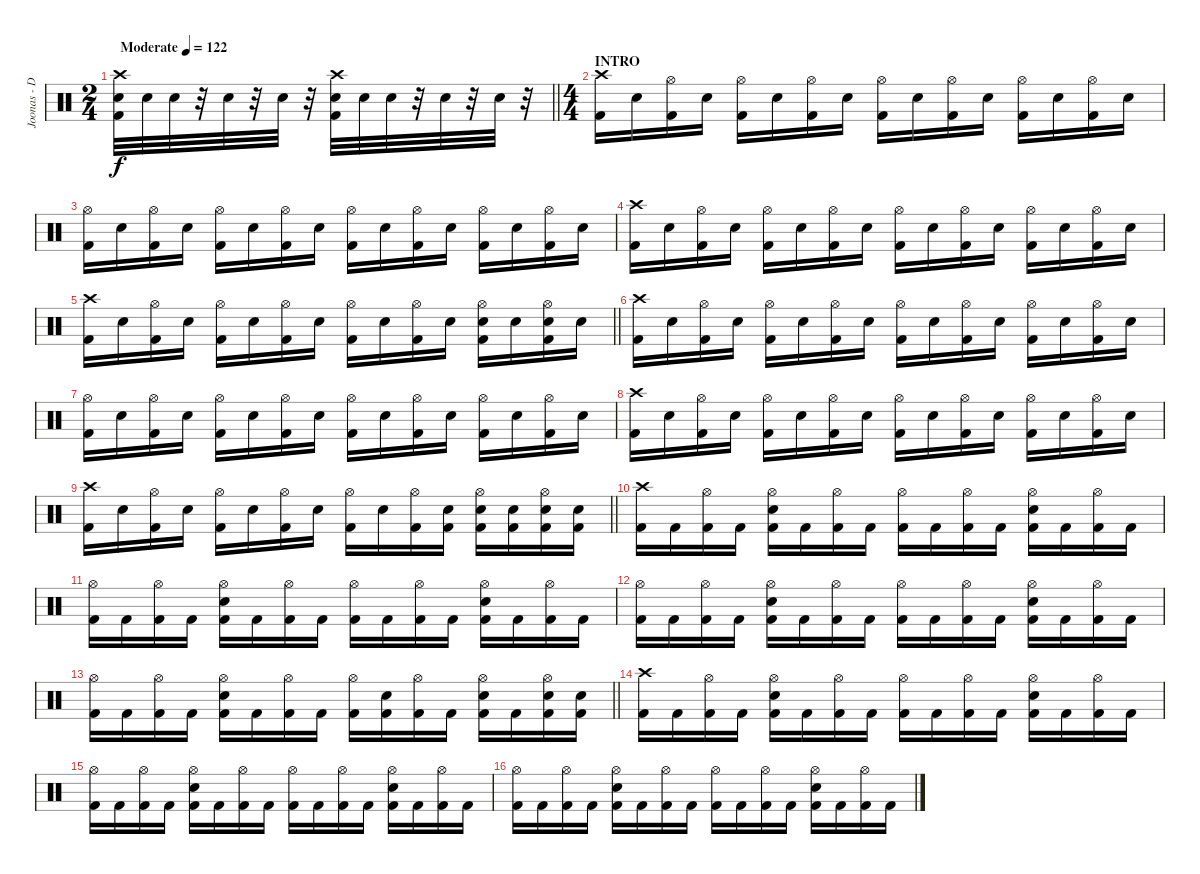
\track ("Joonas - Drums" "Joonas - D") {instrument percussion}
\staff {score}
\articulation defaults
\ts (2 4)
\tempo (122 "Moderate")
\clef neutral
\barLineRight lightlight
\ks c
("Crash high (hit)" "Electric Snare (hit)" "Kick (hit) 2").32{dy f} "Electric Snare (hit)".32 "Electric Snare (hit)".32 r.32 "Electric Snare (hit)".32 r.32 "Electric Snare (hit)".32 r.32 ("Crash high (hit)" "Electric Snare (hit)" "Kick (hit) 2").32 "Electric Snare (hit)".32 "Electric Snare (hit)".32 r.32 "Electric Snare (hit)".32 r.32 "Electric Snare (hit)".32 r.32 |
\ts (4 4)
\section ("" "INTRO")
("Crash high (hit)" "Kick (hit) 2").16 "Electric Snare (hit)".16 ("Hi-Hat (open)" "Kick (hit) 2").16 "Electric Snare (hit)".16 ("Hi-Hat (open)" "Kick (hit) 2").16 "Electric Snare (hit)".16 ("Hi-Hat (open)" "Kick (hit) 2").16 "Electric Snare (hit)".16 ("Hi-Hat (open)" "Kick (hit) 2").16 "Electric Snare (hit)".16 ("Hi-Hat (open)" "Kick (hit) 2").16 "Electric Snare (hit)".16 ("Hi-Hat (open)" "Kick (hit) 2").16 "Electric Snare (hit)".16 ("Hi-Hat (open)" "Kick (hit) 2").16 "Electric Snare (hit)".16 |
("Hi-Hat (open)" "Kick (hit) 2").16 "Electric Snare (hit)".16 ("Hi-Hat (open)" "Kick (hit) 2").16 "Electric Snare (hit)".16 ("Hi-Hat (open)" "Kick (hit) 2").16 "Electric Snare (hit)".16 ("Hi-Hat (open)" "Kick (hit) 2").16 "Electric Snare (hit)".16 ("Hi-Hat (open)" "Kick (hit) 2").16 "Electric Snare (hit)".16 ("Hi-Hat (open)" "Kick (hit) 2").16 "Electric Snare (hit)".16 ("Hi-Hat (open)" "Kick (hit) 2").16 "Electric Snare (hit)".16 ("Hi-Hat (open)" "Kick (hit) 2").16 "Electric Snare (hit)".16 |
("Crash high (hit)" "Kick (hit) 2").16 "Electric Snare (hit)".16 ("Hi-Hat (open)" "Kick (hit) 2").16 "Electric Snare (hit)".16 ("Hi-Hat (open)" "Kick (hit) 2").16 "Electric Snare (hit)".16 ("Hi-Hat (open)" "Kick (hit) 2").16 "Electric Snare (hit)".16 ("Hi-Hat (open)" "Kick (hit) 2").16 "Electric Snare (hit)".16 ("Hi-Hat (open)" "Kick (hit) 2").16 "Electric Snare (hit)".16 ("Hi-Hat (open)" "Kick (hit) 2").16 "Electric Snare (hit)".16 ("Hi-Hat (open)" "Kick (hit) 2").16 "Electric Snare (hit)".16 |
\barLineRight lightlight
("Crash high (hit)" "Kick (hit) 2").16 "Electric Snare (hit)".16 ("Hi-Hat (open)" "Kick (hit) 2").16 "Electric Snare (hit)".16 ("Hi-Hat (open)" "Kick (hit) 2").16 "Electric Snare (hit)".16 ("Hi-Hat (open)" "Kick (hit) 2").16 "Electric Snare (hit)".16 ("Hi-Hat (open)" "Kick (hit) 2").16 "Electric Snare (hit)".16 ("Hi-Hat (open)" "Kick (hit) 2").16 "Electric Snare (hit)".16 ("Hi-Hat (open)" "Electric Snare (hit)" "Kick (hit) 2").16 "Electric Snare (hit)".16 ("Hi-Hat (open)" "Electric Snare (hit)" "Kick (hit) 2").16 "Electric Snare (hit)".16 |
("Crash high (hit)" "Kick (hit) 2").16 "Electric Snare (hit)".16 ("Hi-Hat (open)" "Kick (hit) 2").16 "Electric Snare (hit)".16 ("Hi-Hat (open)" "Kick (hit) 2").16 "Electric Snare (hit)".16 ("Hi-Hat (open)" "Kick (hit) 2").16 "Electric Snare (hit)".16 ("Hi-Hat (open)" "Kick (hit) 2").16 "Electric Snare (hit)".16 ("Hi-Hat (open)" "Kick (hit) 2").16 "Electric Snare (hit)".16 ("Hi-Hat (open)" "Kick (hit) 2").16 "Electric Snare (hit)".16 ("Hi-Hat (open)" "Kick (hit) 2").16 "Electric Snare (hit)".16 |
("Hi-Hat (open)" "Kick (hit) 2").16 "Electric Snare (hit)".16 ("Hi-Hat (open)" "Kick (hit) 2").16 "Electric Snare (hit)".16 ("Hi-Hat (open)" "Kick (hit) 2").16 "Electric Snare (hit)".16 ("Hi-Hat (open)" "Kick (hit) 2").16 "Electric Snare (hit)".16 ("Hi-Hat (open)" "Kick (hit) 2").16 "Electric Snare (hit)".16 ("Hi-Hat (open)" "Kick (hit) 2").16 "Electric Snare (hit)".16 ("Hi-Hat (open)" "Kick (hit) 2").16 "Electric Snare (hit)".16 ("Hi-Hat (open)" "Kick (hit) 2").16 "Electric Snare (hit)".16 |
("Crash high (hit)" "Kick (hit) 2").16 "Electric Snare (hit)".16 ("Hi-Hat (open)" "Kick (hit) 2").16 "Electric Snare (hit)".16 ("Hi-Hat (open)" "Kick (hit) 2").16 "Electric Snare (hit)".16 ("Hi-Hat (open)" "Kick (hit) 2").16 "Electric Snare (hit)".16 ("Hi-Hat (open)" "Kick (hit) 2").16 "Electric Snare (hit)".16 ("Hi-Hat (open)" "Kick (hit) 2").16 "Electric Snare (hit)".16 ("Hi-Hat (open)" "Kick (hit) 2").16 "Electric Snare (hit)".16 ("Hi-Hat (open)" "Kick (hit) 2").16 "Electric Snare (hit)".16 |
\barLineRight lightlight
("Crash high (hit)" "Kick (hit) 2").16 "Electric Snare (hit)".16 ("Hi-Hat (open)" "Kick (hit) 2").16 "Electric Snare (hit)".16 ("Hi-Hat (open)" "Kick (hit) 2").16 "Electric Snare (hit)".16 ("Hi-Hat (open)" "Kick (hit) 2").16 "Electric Snare (hit)".16 ("Hi-Hat (open)" "Kick (hit) 2").16 "Electric Snare (hit)".16 ("Hi-Hat (open)" "Kick (hit) 2").16 ("Electric Snare (hit)" "Kick (hit) 2").16 ("Hi-Hat (open)" "Electric Snare (hit)" "Kick (hit) 2").16 ("Electric Snare (hit)" "Kick (hit) 2").16 ("Hi-Hat (open)" "Electric Snare (hit)" "Kick (hit) 2").16 ("Electric Snare (hit)" "Kick (hit) 2").16 |
("Crash high (hit)" "Kick (hit) 2").16 "Kick (hit) 2".16 ("Hi-Hat (open)" "Kick (hit) 2").16 "Kick (hit) 2".16 ("Hi-Hat (open)" "Electric Snare (hit)" "Kick (hit) 2").16 "Kick (hit) 2".16 ("Hi-Hat (open)" "Kick (hit) 2").16 "Kick (hit) 2".16 ("Hi-Hat (open)" "Kick (hit) 2").16 "Kick (hit) 2".16 ("Hi-Hat (open)" "Kick (hit) 2").16 "Kick (hit) 2".16 ("Hi-Hat (open)" "Electric Snare (hit)" "Kick (hit) 2").16 "Kick (hit) 2".16 ("Hi-Hat (open)" "Kick (hit) 2").16 "Kick (hit) 2".16 |
("Hi-Hat (open)" "Kick (hit) 2").16 "Kick (hit) 2".16 ("Hi-Hat (open)" "Kick (hit) 2").16 "Kick (hit) 2".16 ("Hi-Hat (open)" "Electric Snare (hit)" "Kick (hit) 2").16 "Kick (hit) 2".16 ("Hi-Hat (open)" "Kick (hit) 2").16 "Kick (hit) 2".16 ("Hi-Hat (open)" "Kick (hit) 2").16 "Kick (hit) 2".16 ("Hi-Hat (open)" "Kick (hit) 2").16 "Kick (hit) 2".16 ("Hi-Hat (open)" "Electric Snare (hit)" "Kick (hit) 2").16 "Kick (hit) 2".16 ("Hi-Hat (open)" "Kick (hit) 2").16 "Kick (hit) 2".16 |
("Hi-Hat (open)" "Kick (hit) 2").16 "Kick (hit) 2".16 ("Hi-Hat (open)" "Kick (hit) 2").16 "Kick (hit) 2".16 ("Hi-Hat (open)" "Electric Snare (hit)" "Kick (hit) 2").16 "Kick (hit) 2".16 ("Hi-Hat (open)" "Kick (hit) 2").16 "Kick (hit) 2".16 ("Hi-Hat (open)" "Kick (hit) 2").16 "Kick (hit) 2".16 ("Hi-Hat (open)" "Kick (hit) 2").16 "Kick (hit) 2".16 ("Hi-Hat (open)" "Electric Snare (hit)" "Kick (hit) 2").16 "Kick (hit) 2".16 ("Hi-Hat (open)" "Kick (hit) 2").16 "Kick (hit) 2".16 |
\barLineRight lightlight
("Hi-Hat (open)" "Kick (hit) 2").16 "Kick (hit) 2".16 ("Hi-Hat (open)" "Kick (hit) 2").16 "Kick (hit) 2".16 ("Hi-Hat (open)" "Electric Snare (hit)" "Kick (hit) 2").16 "Kick (hit) 2".16 ("Hi-Hat (open)" "Kick (hit) 2").16 "Kick (hit) 2".16 ("Hi-Hat (open)" "Kick (hit) 2").16 ("Electric Snare (hit)" "Kick (hit) 2").16 ("Hi-Hat (open)" "Kick (hit) 2").16 "Kick (hit) 2".16 ("Hi-Hat (open)" "Electric Snare (hit)" "Kick (hit) 2").16 "Kick (hit) 2".16 ("Hi-Hat (open)" "Electric Snare (hit)" "Kick (hit) 2").16 ("Electric Snare (hit)" "Kick (hit) 2").16 |
("Crash high (hit)" "Kick (hit) 2").16 "Kick (hit) 2".16 ("Hi-Hat (open)" "Kick (hit) 2").16 "Kick (hit) 2".16 ("Hi-Hat (open)" "Electric Snare (hit)" "Kick (hit) 2").16 "Kick (hit) 2".16 ("Hi-Hat (open)" "Kick (hit) 2").16 "Kick (hit) 2".16 ("Hi-Hat (open)" "Kick (hit) 2").16 "Kick (hit) 2".16 ("Hi-Hat (open)" "Kick (hit) 2").16 "Kick (hit) 2".16 ("Hi-Hat (open)" "Electric Snare (hit)" "Kick (hit) 2").16 "Kick (hit) 2".16 ("Hi-Hat (open)" "Kick (hit) 2").16 "Kick (hit) 2".16 |
("Hi-Hat (open)" "Kick (hit) 2").16 "Kick (hit) 2".16 ("Hi-Hat (open)" "Kick (hit) 2").16 "Kick (hit) 2".16 ("Hi-Hat (open)" "Electric Snare (hit)" "Kick (hit) 2").16 "Kick (hit) 2".16 ("Hi-Hat (open)" "Kick (hit) 2").16 "Kick (hit) 2".16 ("Hi-Hat (open)" "Kick (hit) 2").16 "Kick (hit) 2".16 ("Hi-Hat (open)" "Kick (hit) 2").16 "Kick (hit) 2".16 ("Hi-Hat (open)" "Electric Snare (hit)" "Kick (hit) 2").16 "Kick (hit) 2".16 ("Hi-Hat (open)" "Kick (hit) 2").16 "Kick (hit) 2".16 |
("Hi-Hat (open)" "Kick (hit) 2").16 "Kick (hit) 2".16 ("Hi-Hat (open)" "Kick (hit) 2").16 "Kick (hit) 2".16 ("Hi-Hat (open)" "Electric Snare (hit)" "Kick (hit) 2").16 "Kick (hit) 2".16 ("Hi-Hat (open)" "Kick (hit) 2").16 "Kick (hit) 2".16 ("Hi-Hat (open)" "Kick (hit) 2").16 "Kick (hit) 2".16 ("Hi-Hat (open)" "Kick (hit) 2").16 "Kick (hit) 2".16 ("Hi-Hat (open)" "Electric Snare (hit)" "Kick (hit) 2").16 "Kick (hit) 2".16 ("Hi-Hat (open)" "Kick (hit) 2").16 "Kick (hit) 2".16
